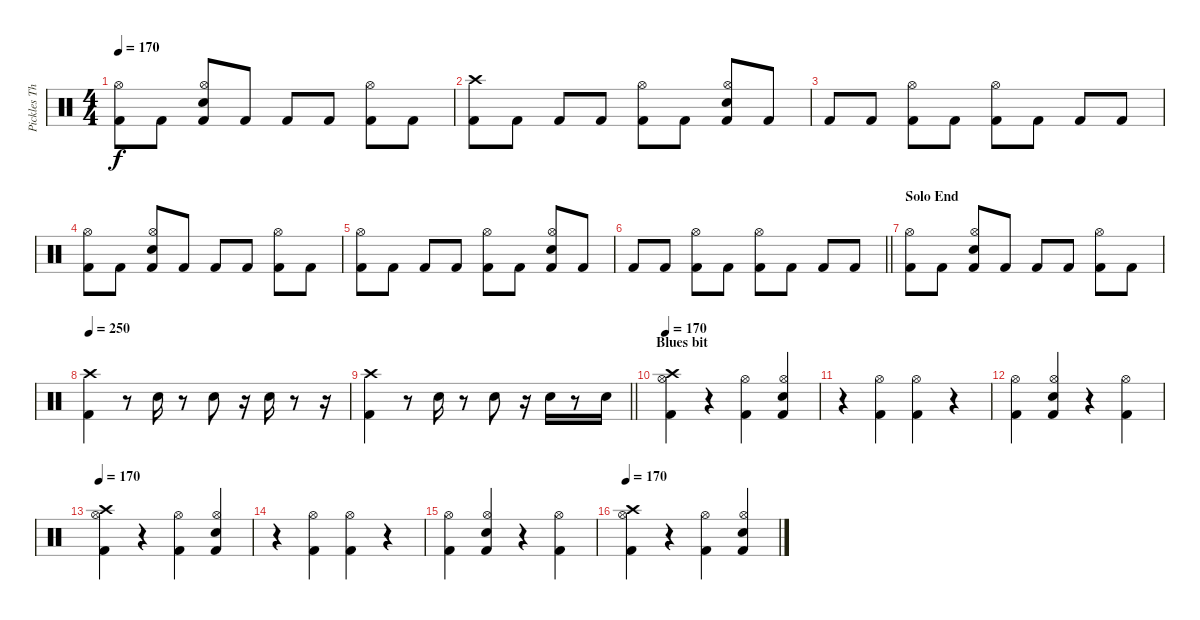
\track ("Pickles The Drummer" "Pickles Th") {instrument percussion}
\staff {score}
\articulation defaults
\ts (4 4)
\tempo 170
\clef neutral
\ks c
("Kick (hit) 2" "Hi-Hat (open)").8{dy f} "Kick (hit) 2".8 ("Kick (hit) 2" "Hi-Hat (open)" "Snare (hit) 2").8 "Kick (hit) 2".8 "Kick (hit) 2".8 "Kick (hit) 2".8 ("Kick (hit) 2" "Hi-Hat (open)").8 "Kick (hit) 2".8 |
("Kick (hit) 2" "Crash high (hit)").8 "Kick (hit) 2".8 "Kick (hit) 2".8 "Kick (hit) 2".8 ("Kick (hit) 2" "Hi-Hat (open)").8 "Kick (hit) 2".8 ("Kick (hit) 2" "Hi-Hat (open)" "Snare (hit) 2").8 "Kick (hit) 2".8 |
"Kick (hit) 2".8 "Kick (hit) 2".8 ("Kick (hit) 2" "Hi-Hat (open)").8 "Kick (hit) 2".8 ("Kick (hit) 2" "Hi-Hat (open)").8 "Kick (hit) 2".8 "Kick (hit) 2".8 "Kick (hit) 2".8 |
("Kick (hit) 2" "Hi-Hat (open)").8 "Kick (hit) 2".8 ("Kick (hit) 2" "Hi-Hat (open)" "Snare (hit) 2").8 "Kick (hit) 2".8 "Kick (hit) 2".8 "Kick (hit) 2".8 ("Kick (hit) 2" "Hi-Hat (open)").8 "Kick (hit) 2".8 |
("Kick (hit) 2" "Hi-Hat (open)").8 "Kick (hit) 2".8 "Kick (hit) 2".8 "Kick (hit) 2".8 ("Kick (hit) 2" "Hi-Hat (open)").8 "Kick (hit) 2".8 ("Kick (hit) 2" "Hi-Hat (open)" "Snare (hit) 2").8 "Kick (hit) 2".8 |
\barLineRight lightlight "Kick (hit) 2".8 "Kick (hit) 2".8
("Kick (hit) 2" "Hi-Hat (open)").8 "Kick (hit) 2".8 ("Kick (hit) 2" "Hi-Hat (open)").8 "Kick (hit) 2".8 "Kick (hit) 2".8 "Kick (hit) 2".8 |
\section ("" "Solo End")
("Kick (hit) 2" "Hi-Hat (open)").8 "Kick (hit) 2".8 ("Kick (hit) 2" "Hi-Hat (open)" "Snare (hit) 2").8 "Kick (hit) 2".8 "Kick (hit) 2".8 "Kick (hit) 2".8 ("Kick (hit) 2" "Hi-Hat (open)").8 "Kick (hit) 2".8 |
\tempo 250
("Kick (hit) 2" "Crash high (hit)").4 r.8 "Snare (hit) 2".16 r.8 "Snare (hit) 2".8 r.16 "Snare (hit) 2".16 r.8 r.16 |
\barLineRight lightlight
("Kick (hit) 2" "Crash high (hit)").4 r.8 "Snare (hit) 2".16 r.8 "Snare (hit) 2".8 r.16 "Snare (hit) 2".16 r.8 "Snare (hit) 2".16 |
\section ("" "Blues bit")
\tempo 170
("Kick (hit) 2" "Hi-Hat (open)" "Crash high (hit)").4 r.4 ("Kick (hit) 2" "Hi-Hat (open)").4 ("Kick (hit) 2" "Hi-Hat (open)" "Snare (hit) 2").4 |
r.4 ("Kick (hit) 2" "Hi-Hat (open)").4 ("Kick (hit) 2" "Hi-Hat (open)").4 r.4 |
("Kick (hit) 2" "Hi-Hat (open)").4 ("Kick (hit) 2" "Hi-Hat (open)" "Snare (hit) 2").4 r.4 ("Kick (hit) 2" "Hi-Hat (open)").4 |
\tempo 170
("Kick (hit) 2" "Hi-Hat (open)" "Crash high (hit)").4 r.4 ("Kick (hit) 2" "Hi-Hat (open)").4 ("Kick (hit) 2" "Hi-Hat (open)" "Snare (hit) 2").4 |
r.4 ("Kick (hit) 2" "Hi-Hat (open)").4 ("Kick (hit) 2" "Hi-Hat (open)").4 r.4 |
("Kick (hit) 2" "Hi-Hat (open)").4 ("Kick (hit) 2" "Hi-Hat (open)" "Snare (hit) 2").4 r.4 ("Kick (hit) 2" "Hi-Hat (open)").4 |
\tempo 170
("Kick (hit) 2" "Hi-Hat (open)" "Crash high (hit)").4 r.4 ("Kick (hit) 2" "Hi-Hat (open)").4 ("Kick (hit) 2" "Hi-Hat (open)" "Snare (hit) 2").4
